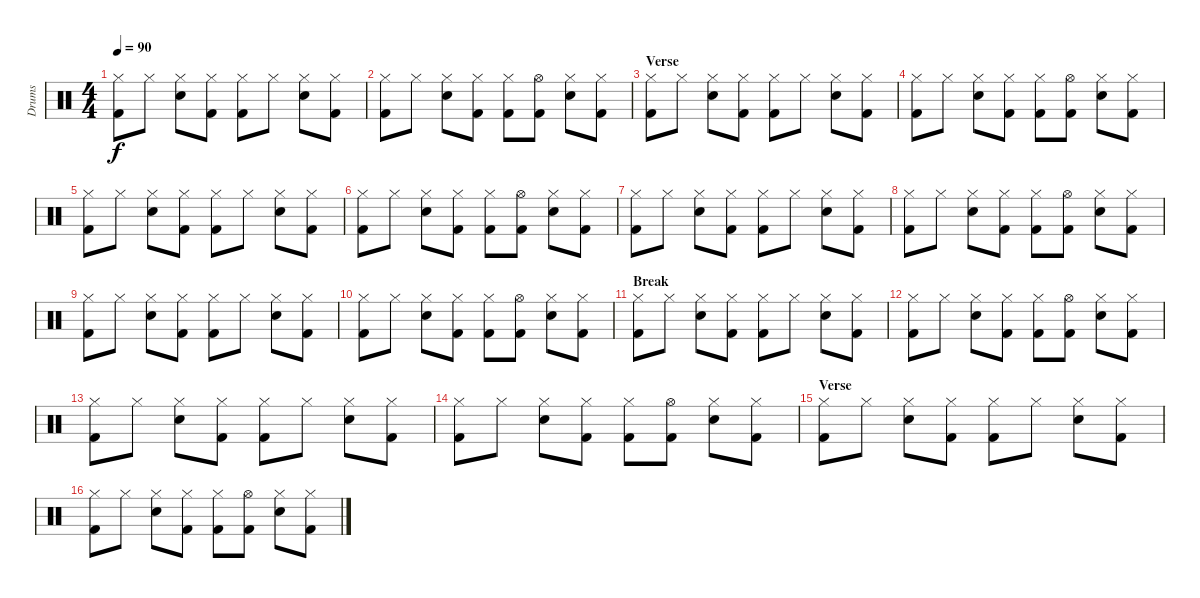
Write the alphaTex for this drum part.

\track ("Drums" "Drums") {instrument percussion}
\staff {score}
\articulation defaults
\ts (4 4)
\tempo 90
\clef neutral
\ks c
("Hi-Hat (closed)" "Kick (hit) 2").8{dy f} "Hi-Hat (closed)".8 ("Hi-Hat (closed)" "Electric Snare (hit)").8 ("Hi-Hat (closed)" "Kick (hit) 2").8 ("Hi-Hat (closed)" "Kick (hit) 2").8 "Hi-Hat (closed)".8 ("Hi-Hat (closed)" "Electric Snare (hit)").8 ("Hi-Hat (closed)" "Kick (hit) 2").8 |
("Hi-Hat (closed)" "Kick (hit) 2").8 "Hi-Hat (closed)".8 ("Hi-Hat (closed)" "Electric Snare (hit)").8 ("Hi-Hat (closed)" "Kick (hit) 2").8 ("Hi-Hat (closed)" "Kick (hit) 2").8 ("Hi-Hat (open)" "Kick (hit) 2").8 ("Hi-Hat (closed)" "Electric Snare (hit)").8 ("Hi-Hat (closed)" "Kick (hit) 2").8 |
\section ("" "Verse")
("Hi-Hat (closed)" "Kick (hit) 2").8 "Hi-Hat (closed)".8 ("Hi-Hat (closed)" "Electric Snare (hit)").8 ("Hi-Hat (closed)" "Kick (hit) 2").8 ("Hi-Hat (closed)" "Kick (hit) 2").8 "Hi-Hat (closed)".8 ("Hi-Hat (closed)" "Electric Snare (hit)").8 ("Hi-Hat (closed)" "Kick (hit) 2").8 |
("Hi-Hat (closed)" "Kick (hit) 2").8 "Hi-Hat (closed)".8 ("Hi-Hat (closed)" "Electric Snare (hit)").8 ("Hi-Hat (closed)" "Kick (hit) 2").8 ("Hi-Hat (closed)" "Kick (hit) 2").8 ("Hi-Hat (open)" "Kick (hit) 2").8 ("Hi-Hat (closed)" "Electric Snare (hit)").8 ("Hi-Hat (closed)" "Kick (hit) 2").8 |
("Hi-Hat (closed)" "Kick (hit) 2").8 "Hi-Hat (closed)".8 ("Hi-Hat (closed)" "Electric Snare (hit)").8 ("Hi-Hat (closed)" "Kick (hit) 2").8 ("Hi-Hat (closed)" "Kick (hit) 2").8 "Hi-Hat (closed)".8 ("Hi-Hat (closed)" "Electric Snare (hit)").8 ("Hi-Hat (closed)" "Kick (hit) 2").8 |
("Hi-Hat (closed)" "Kick (hit) 2").8 "Hi-Hat (closed)".8 ("Hi-Hat (closed)" "Electric Snare (hit)").8 ("Hi-Hat (closed)" "Kick (hit) 2").8 ("Hi-Hat (closed)" "Kick (hit) 2").8 ("Hi-Hat (open)" "Kick (hit) 2").8 ("Hi-Hat (closed)" "Electric Snare (hit)").8 ("Hi-Hat (closed)" "Kick (hit) 2").8 |
("Hi-Hat (closed)" "Kick (hit) 2").8 "Hi-Hat (closed)".8 ("Hi-Hat (closed)" "Electric Snare (hit)").8 ("Hi-Hat (closed)" "Kick (hit) 2").8 ("Hi-Hat (closed)" "Kick (hit) 2").8 "Hi-Hat (closed)".8 ("Hi-Hat (closed)" "Electric Snare (hit)").8 ("Hi-Hat (closed)" "Kick (hit) 2").8 |
("Hi-Hat (closed)" "Kick (hit) 2").8 "Hi-Hat (closed)".8 ("Hi-Hat (closed)" "Electric Snare (hit)").8 ("Hi-Hat (closed)" "Kick (hit) 2").8 ("Hi-Hat (closed)" "Kick (hit) 2").8 ("Hi-Hat (open)" "Kick (hit) 2").8 ("Hi-Hat (closed)" "Electric Snare (hit)").8 ("Hi-Hat (closed)" "Kick (hit) 2").8 |
("Hi-Hat (closed)" "Kick (hit) 2").8 "Hi-Hat (closed)".8 ("Hi-Hat (closed)" "Electric Snare (hit)").8 ("Hi-Hat (closed)" "Kick (hit) 2").8 ("Hi-Hat (closed)" "Kick (hit) 2").8 "Hi-Hat (closed)".8 ("Hi-Hat (closed)" "Electric Snare (hit)").8 ("Hi-Hat (closed)" "Kick (hit) 2").8 |
("Hi-Hat (closed)" "Kick (hit) 2").8 "Hi-Hat (closed)".8 ("Hi-Hat (closed)" "Electric Snare (hit)").8 ("Hi-Hat (closed)" "Kick (hit) 2").8 ("Hi-Hat (closed)" "Kick (hit) 2").8 ("Hi-Hat (open)" "Kick (hit) 2").8 ("Hi-Hat (closed)" "Electric Snare (hit)").8 ("Hi-Hat (closed)" "Kick (hit) 2").8 |
\section ("" "Break")
("Hi-Hat (closed)" "Kick (hit) 2").8 "Hi-Hat (closed)".8 ("Hi-Hat (closed)" "Electric Snare (hit)").8 ("Hi-Hat (closed)" "Kick (hit) 2").8 ("Hi-Hat (closed)" "Kick (hit) 2").8 "Hi-Hat (closed)".8 ("Hi-Hat (closed)" "Electric Snare (hit)").8 ("Hi-Hat (closed)" "Kick (hit) 2").8 |
("Hi-Hat (closed)" "Kick (hit) 2").8 "Hi-Hat (closed)".8 ("Hi-Hat (closed)" "Electric Snare (hit)").8 ("Hi-Hat (closed)" "Kick (hit) 2").8 ("Hi-Hat (closed)" "Kick (hit) 2").8 ("Hi-Hat (open)" "Kick (hit) 2").8 ("Hi-Hat (closed)" "Electric Snare (hit)").8 ("Hi-Hat (closed)" "Kick (hit) 2").8 |
("Hi-Hat (closed)" "Kick (hit) 2").8 "Hi-Hat (closed)".8 ("Hi-Hat (closed)" "Electric Snare (hit)").8 ("Hi-Hat (closed)" "Kick (hit) 2").8 ("Hi-Hat (closed)" "Kick (hit) 2").8 "Hi-Hat (closed)".8 ("Hi-Hat (closed)" "Electric Snare (hit)").8 ("Hi-Hat (closed)" "Kick (hit) 2").8 |
("Hi-Hat (closed)" "Kick (hit) 2").8 "Hi-Hat (closed)".8 ("Hi-Hat (closed)" "Electric Snare (hit)").8 ("Hi-Hat (closed)" "Kick (hit) 2").8 ("Hi-Hat (closed)" "Kick (hit) 2").8 ("Hi-Hat (open)" "Kick (hit) 2").8 ("Hi-Hat (closed)" "Electric Snare (hit)").8 ("Hi-Hat (closed)" "Kick (hit) 2").8 |
\section ("" "Verse")
("Hi-Hat (closed)" "Kick (hit) 2").8 "Hi-Hat (closed)".8 ("Hi-Hat (closed)" "Electric Snare (hit)").8 ("Hi-Hat (closed)" "Kick (hit) 2").8 ("Hi-Hat (closed)" "Kick (hit) 2").8 "Hi-Hat (closed)".8 ("Hi-Hat (closed)" "Electric Snare (hit)").8 ("Hi-Hat (closed)" "Kick (hit) 2").8 |
("Hi-Hat (closed)" "Kick (hit) 2").8 "Hi-Hat (closed)".8 ("Hi-Hat (closed)" "Electric Snare (hit)").8 ("Hi-Hat (closed)" "Kick (hit) 2").8 ("Hi-Hat (closed)" "Kick (hit) 2").8 ("Hi-Hat (open)" "Kick (hit) 2").8 ("Hi-Hat (closed)" "Electric Snare (hit)").8 ("Hi-Hat (closed)" "Kick (hit) 2").8
